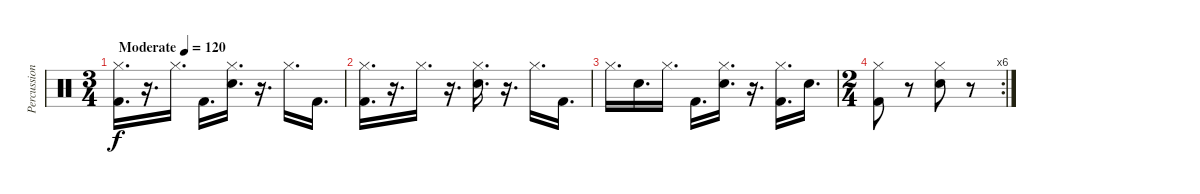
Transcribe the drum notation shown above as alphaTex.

\track ("Percussion" "Percussion") {instrument percussion}
\staff {score}
\articulation defaults
\ts (3 4)
\tempo (120 "Moderate")
\clef neutral
\ks c
("Hi-Hat (closed)" "Kick (hit) 2").16{d dy f} r.16{d} "Hi-Hat (closed)".16{d} "Kick (hit) 2".16{d} ("Hi-Hat (closed)" "Electric Snare (hit)").16{d} r.16{d} "Hi-Hat (closed)".16{d} "Kick (hit) 2".16{d} |
("Hi-Hat (closed)" "Kick (hit) 2").16{d} r.16{d} "Hi-Hat (closed)".16{d} r.16{d} ("Hi-Hat (closed)" "Electric Snare (hit)").16{d} r.16{d} "Hi-Hat (closed)".16{d} "Kick (hit) 2".16{d} |
"Hi-Hat (closed)".16{d} "Electric Snare (hit)".16{d} "Hi-Hat (closed)".16{d} "Kick (hit) 2".16{d} ("Hi-Hat (closed)" "Electric Snare (hit)").16{d} r.16{d} ("Hi-Hat (closed)" "Kick (hit) 2").16{d} "Electric Snare (hit)".16{d} |
\rc 6
\ts (2 4)
("Hi-Hat (closed)" "Kick (hit) 2").8 r.8 ("Hi-Hat (closed)" "Electric Snare (hit)").8 r.8
